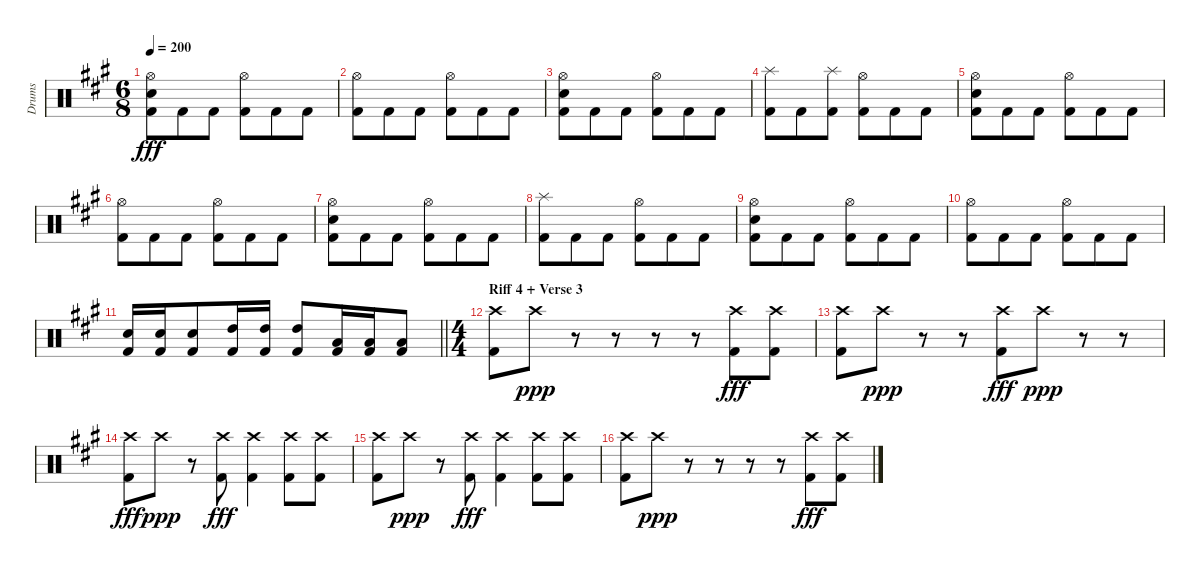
\track ("Drums" "Drums") {instrument percussion}
\staff {score}
\articulation defaults
\ts (6 8)
\tempo 200
\clef neutral
\ks f#minor
("Hi-Hat (open)" "Electric Snare (hit)" "Kick (hit) 2").8{dy fff} "Kick (hit) 2".8 "Kick (hit) 2".8 ("Hi-Hat (open)" "Kick (hit) 2").8 "Kick (hit) 2".8 "Kick (hit) 2".8 |
("Hi-Hat (open)" "Kick (hit) 2").8 "Kick (hit) 2".8 "Kick (hit) 2".8 ("Hi-Hat (open)" "Kick (hit) 2").8 "Kick (hit) 2".8 "Kick (hit) 2".8 |
("Hi-Hat (open)" "Electric Snare (hit)" "Kick (hit) 2").8 "Kick (hit) 2".8 "Kick (hit) 2".8 ("Hi-Hat (open)" "Kick (hit) 2").8 "Kick (hit) 2".8 "Kick (hit) 2".8 |
("Splash (hit)" "Kick (hit) 2").8 "Kick (hit) 2".8 ("Splash (hit)" "Kick (hit) 2").8 ("Hi-Hat (open)" "Kick (hit) 2").8 "Kick (hit) 2".8 "Kick (hit) 2".8 |
("Hi-Hat (open)" "Electric Snare (hit)" "Kick (hit) 2").8 "Kick (hit) 2".8 "Kick (hit) 2".8 ("Hi-Hat (open)" "Kick (hit) 2").8 "Kick (hit) 2".8 "Kick (hit) 2".8 |
("Hi-Hat (open)" "Kick (hit) 2").8 "Kick (hit) 2".8 "Kick (hit) 2".8 ("Hi-Hat (open)" "Kick (hit) 2").8 "Kick (hit) 2".8 "Kick (hit) 2".8 |
("Hi-Hat (open)" "Electric Snare (hit)" "Kick (hit) 2").8 "Kick (hit) 2".8 "Kick (hit) 2".8 ("Hi-Hat (open)" "Kick (hit) 2").8 "Kick (hit) 2".8 "Kick (hit) 2".8 |
("Splash (hit)" "Kick (hit) 2").8 "Kick (hit) 2".8 "Kick (hit) 2".8 ("Hi-Hat (open)" "Kick (hit) 2").8 "Kick (hit) 2".8 "Kick (hit) 2".8 |
("Hi-Hat (open)" "Electric Snare (hit)" "Kick (hit) 2").8 "Kick (hit) 2".8 "Kick (hit) 2".8 ("Hi-Hat (open)" "Kick (hit) 2").8 "Kick (hit) 2".8 "Kick (hit) 2".8 |
("Hi-Hat (open)" "Kick (hit) 2").8 "Kick (hit) 2".8 "Kick (hit) 2".8 ("Hi-Hat (open)" "Kick (hit) 2").8 "Kick (hit) 2".8 "Kick (hit) 2".8 |
\barLineRight lightlight
("Electric Snare (hit)" "Kick (hit) 2").16 ("Electric Snare (hit)" "Kick (hit) 2").16 ("Electric Snare (hit)" "Kick (hit) 2").8 ("High Tom (hit)" "Kick (hit) 2").16 ("High Tom (hit)" "Kick (hit) 2").16 ("High Tom (hit)" "Kick (hit) 2").8 ("Low Tom (hit)" "Kick (hit) 2").16 ("Low Tom (hit)" "Kick (hit) 2").16 ("Low Tom (hit)" "Kick (hit) 2").8 |
\ts (4 4)
\section ("" "Riff 4 + Verse 3")
("Crash high (hit)" "Kick (hit) 2").8 "Crash high (hit)".8{dy ppp} r.8 r.8 r.8 r.8 ("Crash high (hit)" "Kick (hit) 2").8{dy fff} ("Crash high (hit)" "Kick (hit) 2").8 |
("Crash high (hit)" "Kick (hit) 2").8 "Crash high (hit)".8{dy ppp} r.8 r.8 ("Crash high (hit)" "Kick (hit) 2").8{dy fff} "Crash high (hit)".8{dy ppp} r.8 r.8 |
("Crash high (hit)" "Kick (hit) 2").8{dy fff} "Crash high (hit)".8{dy ppp} r.8 ("Crash high (hit)" "Kick (hit) 2").8{dy fff} ("Crash high (hit)" "Kick (hit) 2").4 ("Crash high (hit)" "Kick (hit) 2").8 ("Crash high (hit)" "Kick (hit) 2").8 |
("Crash high (hit)" "Kick (hit) 2").8 "Crash high (hit)".8{dy ppp} r.8 ("Crash high (hit)" "Kick (hit) 2").8{dy fff} ("Crash high (hit)" "Kick (hit) 2").4 ("Crash high (hit)" "Kick (hit) 2").8 ("Crash high (hit)" "Kick (hit) 2").8 |
("Crash high (hit)" "Kick (hit) 2").8 "Crash high (hit)".8{dy ppp} r.8 r.8 r.8 r.8 ("Crash high (hit)" "Kick (hit) 2").8{dy fff} ("Crash high (hit)" "Kick (hit) 2").8
